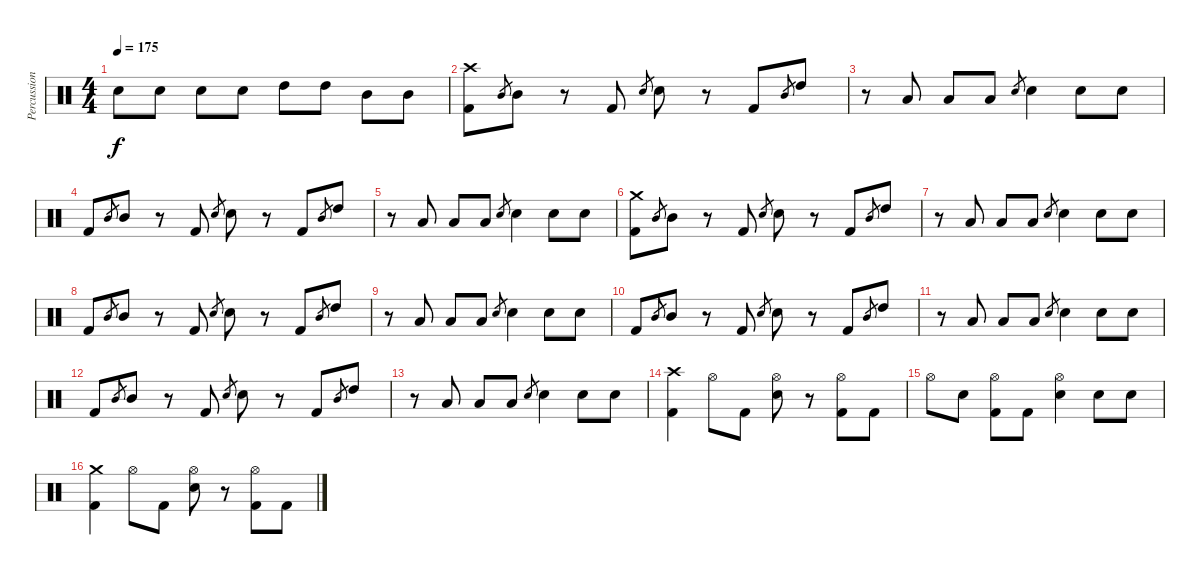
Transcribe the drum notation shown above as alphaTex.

\track ("Percussion" "Percussion") {instrument percussion}
\staff {score}
\articulation defaults
\ts (4 4)
\tempo 175
\clef neutral
\ks c "Electric Snare (hit)".8{dy f} "Electric Snare (hit)".8 "Electric Snare (hit)".8 "Electric Snare (hit)".8 "High Tom (hit)".8 "High Tom (hit)".8 "Mid Tom (hit)".8 "Mid Tom (hit)".8
|
("Crash high (hit)" "Kick (hit) 2").8 "Mid Tom (hit)".8{gr} "Mid Tom (hit)".8 r.8 "Kick (hit) 2".8 "Electric Snare (hit)".8{gr} "Electric Snare (hit)".8 r.8 "Kick (hit) 2".8 "Mid Tom (hit)".8{gr} "High Tom (hit)".8 |
r.8 "Low Tom (hit)".8 "Low Tom (hit)".8 "Low Tom (hit)".8 "Electric Snare (hit)".8{gr} "Electric Snare (hit)".4 "Electric Snare (hit)".8 "Electric Snare (hit)".8 |
"Kick (hit) 2".8 "Mid Tom (hit)".8{gr} "Mid Tom (hit)".8 r.8 "Kick (hit) 2".8 "Electric Snare (hit)".8{gr} "Electric Snare (hit)".8 r.8 "Kick (hit) 2".8 "Mid Tom (hit)".8{gr} "High Tom (hit)".8 |
r.8 "Low Tom (hit)".8 "Low Tom (hit)".8 "Low Tom (hit)".8 "Electric Snare (hit)".8{gr} "Electric Snare (hit)".4 "Electric Snare (hit)".8 "Electric Snare (hit)".8 |
("Crash medium (hit)" "Kick (hit) 2").8 "Mid Tom (hit)".8{gr} "Mid Tom (hit)".8 r.8 "Kick (hit) 2".8 "Electric Snare (hit)".8{gr} "Electric Snare (hit)".8 r.8 "Kick (hit) 2".8 "Mid Tom (hit)".8{gr} "High Tom (hit)".8 |
r.8 "Low Tom (hit)".8 "Low Tom (hit)".8 "Low Tom (hit)".8 "Electric Snare (hit)".8{gr} "Electric Snare (hit)".4 "Electric Snare (hit)".8 "Electric Snare (hit)".8 |
"Kick (hit) 2".8 "Mid Tom (hit)".8{gr} "Mid Tom (hit)".8 r.8 "Kick (hit) 2".8 "Electric Snare (hit)".8{gr} "Electric Snare (hit)".8 r.8 "Kick (hit) 2".8 "Mid Tom (hit)".8{gr} "High Tom (hit)".8 |
r.8 "Low Tom (hit)".8 "Low Tom (hit)".8 "Low Tom (hit)".8 "Electric Snare (hit)".8{gr} "Electric Snare (hit)".4 "Electric Snare (hit)".8 "Electric Snare (hit)".8 |
"Kick (hit) 2".8 "Mid Tom (hit)".8{gr} "Mid Tom (hit)".8 r.8 "Kick (hit) 2".8 "Electric Snare (hit)".8{gr} "Electric Snare (hit)".8 r.8 "Kick (hit) 2".8 "Mid Tom (hit)".8{gr} "High Tom (hit)".8 |
r.8 "Low Tom (hit)".8 "Low Tom (hit)".8 "Low Tom (hit)".8 "Electric Snare (hit)".8{gr} "Electric Snare (hit)".4 "Electric Snare (hit)".8 "Electric Snare (hit)".8 |
"Kick (hit) 2".8 "Mid Tom (hit)".8{gr} "Mid Tom (hit)".8 r.8 "Kick (hit) 2".8 "Electric Snare (hit)".8{gr} "Electric Snare (hit)".8 r.8 "Kick (hit) 2".8 "Mid Tom (hit)".8{gr} "High Tom (hit)".8 |
r.8 "Low Tom (hit)".8 "Low Tom (hit)".8 "Low Tom (hit)".8 "Electric Snare (hit)".8{gr} "Electric Snare (hit)".4 "Electric Snare (hit)".8 "Electric Snare (hit)".8 |
("Crash high (hit)" "Kick (hit) 2").4 "Hi-Hat (open)".8 "Kick (hit) 2".8 ("Hi-Hat (open)" "Electric Snare (hit)").8 r.8 ("Hi-Hat (open)" "Kick (hit) 2").8 "Kick (hit) 2".8 |
"Hi-Hat (open)".8 "Electric Snare (hit)".8 ("Hi-Hat (open)" "Kick (hit) 2").8 "Kick (hit) 2".8 ("Hi-Hat (open)" "Electric Snare (hit)").4 "Electric Snare (hit)".8 "Electric Snare (hit)".8 |
("Crash medium (hit)" "Kick (hit) 2").4 "Hi-Hat (open)".8 "Kick (hit) 2".8 ("Hi-Hat (open)" "Electric Snare (hit)").8 r.8 ("Hi-Hat (open)" "Kick (hit) 2").8 "Kick (hit) 2".8
